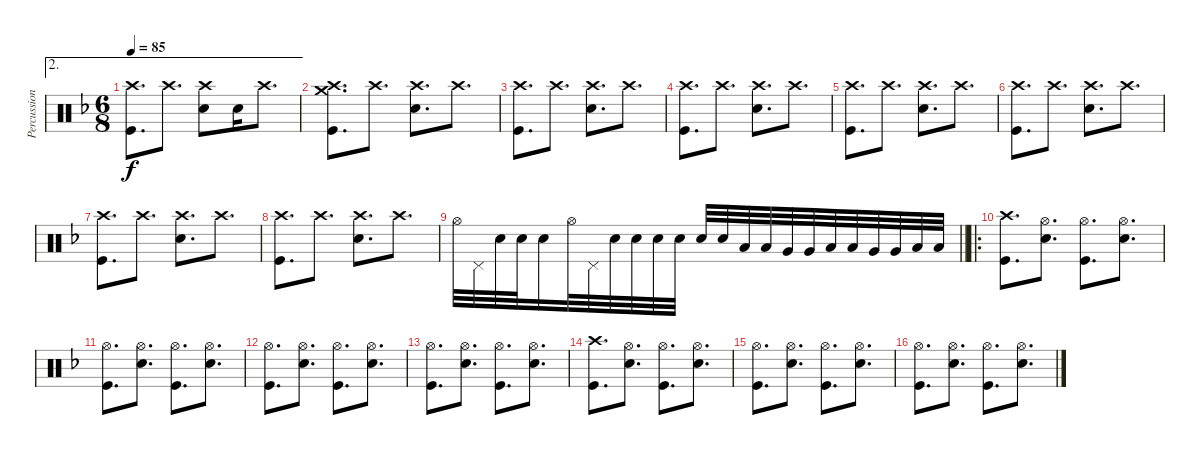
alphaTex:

\track ("Percussion" "Percussion") {instrument percussion}
\staff {score}
\articulation defaults
\ae 2
\ts (6 8)
\tempo 85
\clef neutral
\ks f
("Kick (hit)" "Crash high (hit)").8{d dy f} "Crash high (hit)".8{d} ("Snare (hit) 2" "Crash high (hit)").8 "Snare (hit) 2".16 "Crash high (hit)".8{d} |
("Kick (hit)" "Crash high (hit)" "Crash medium (hit)").8{d} "Crash high (hit)".8{d} ("Snare (hit) 2" "Crash high (hit)").8{d} "Crash high (hit)".8{d} |
("Kick (hit)" "Crash high (hit)").8{d} "Crash high (hit)".8{d} ("Snare (hit) 2" "Crash high (hit)").8{d} "Crash high (hit)".8{d} |
("Kick (hit)" "Crash high (hit)").8{d} "Crash high (hit)".8{d} ("Snare (hit) 2" "Crash high (hit)").8{d} "Crash high (hit)".8{d} |
("Kick (hit)" "Crash high (hit)").8{d} "Crash high (hit)".8{d} ("Snare (hit) 2" "Crash high (hit)").8{d} "Crash high (hit)".8{d} |
("Kick (hit)" "Crash high (hit)").8{d} "Crash high (hit)".8{d} ("Snare (hit) 2" "Crash high (hit)").8{d} "Crash high (hit)".8{d} |
("Kick (hit)" "Crash high (hit)").8{d} "Crash high (hit)".8{d} ("Snare (hit) 2" "Crash high (hit)").8{d} "Crash high (hit)".8{d} |
("Kick (hit)" "Crash high (hit)").8{d} "Crash high (hit)".8{d} ("Snare (hit) 2" "Crash high (hit)").8{d} "Crash high (hit)".8{d} |
\barLineRight lightlight "Hi-Hat (open)".32 "Pedal Hi-Hat (hit)".32 "Snare (hit) 2".32 "Snare (hit) 2".32 "Snare (hit) 2".16 "Hi-Hat (open)".32 "Pedal Hi-Hat (hit)".32 "Snare (hit) 2".32 "Snare (hit) 2".32 "Snare (hit) 2".32 "Snare (hit) 2".32 "Snare (hit) 2".32 "Snare (hit) 2".32 "Low Tom (hit)".32 "Low Tom (hit)".32 "Very Low Tom (hit)".32 "Very Low Tom (hit)".32 "Low Tom (hit)".32 "Low Tom (hit)".32 "Very Low Tom (hit)".32 "Very Low Tom (hit)".32 "Low Floor Tom (hit)".32 "Low Floor Tom (hit)".32
|
\ro
("Kick (hit)" "Crash high (hit)").8{d} ("Hi-Hat (open)" "Snare (hit) 2").8{d} ("Hi-Hat (open)" "Kick (hit)").8{d} ("Snare (hit) 2" "Hi-Hat (open)").8{d} |
("Hi-Hat (open)" "Kick (hit)").8{d} ("Hi-Hat (open)" "Snare (hit) 2").8{d} ("Hi-Hat (open)" "Kick (hit)").8{d} ("Hi-Hat (open)" "Snare (hit) 2").8{d} |
("Hi-Hat (open)" "Kick (hit)").8{d} ("Hi-Hat (open)" "Snare (hit) 2").8{d} ("Hi-Hat (open)" "Kick (hit)").8{d} ("Hi-Hat (open)" "Snare (hit) 2").8{d} |
("Hi-Hat (open)" "Kick (hit)").8{d} ("Hi-Hat (open)" "Snare (hit) 2").8{d} ("Hi-Hat (open)" "Kick (hit)").8{d} ("Hi-Hat (open)" "Snare (hit) 2").8{d} |
("Kick (hit)" "Crash high (hit)").8{d} ("Hi-Hat (open)" "Snare (hit) 2").8{d} ("Hi-Hat (open)" "Kick (hit)").8{d} ("Snare (hit) 2" "Hi-Hat (open)").8{d} |
("Hi-Hat (open)" "Kick (hit)").8{d} ("Hi-Hat (open)" "Snare (hit) 2").8{d} ("Hi-Hat (open)" "Kick (hit)").8{d} ("Hi-Hat (open)" "Snare (hit) 2").8{d} |
("Hi-Hat (open)" "Kick (hit)").8{d} ("Hi-Hat (open)" "Snare (hit) 2").8{d} ("Hi-Hat (open)" "Kick (hit)").8{d} ("Hi-Hat (open)" "Snare (hit) 2").8{d}
